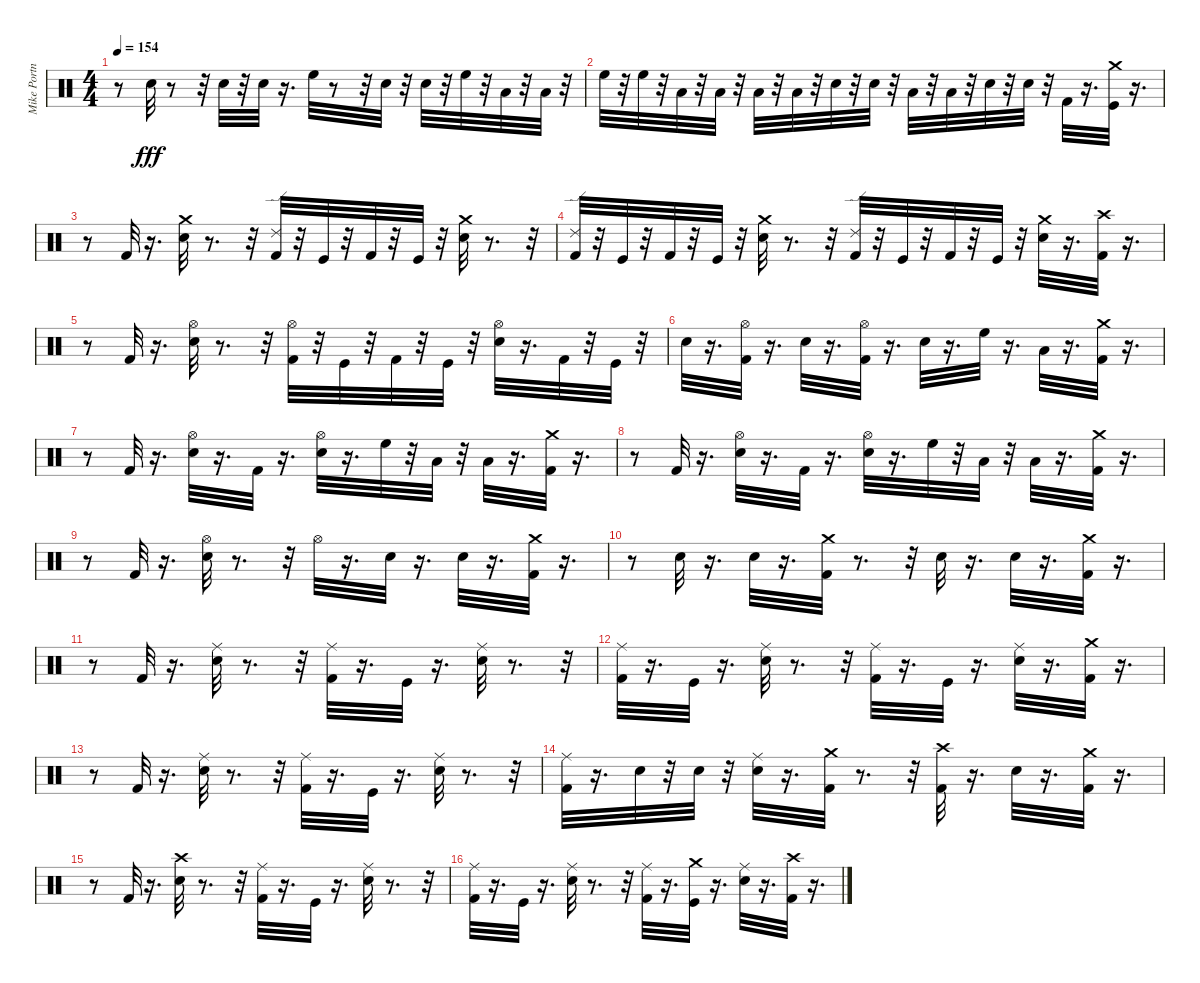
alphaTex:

\track ("Mike Portnoy" "Mike Portn") {instrument percussion}
\staff {score}
\articulation defaults
\ts (4 4)
\tempo 154
\clef neutral
\ks c
r.8{dy fff} "Snare (hit) 2".32 r.8 r.32 "Snare (hit) 2".32 r.32 "Snare (hit) 2".32 r.16{d} "High Floor Tom (hit)".32 r.8 r.32 "Snare (hit) 2".32 r.32 "Snare (hit) 2".32 r.32 "High Floor Tom (hit)".32 r.32 "Low Tom (hit)".32 r.32 "Low Tom (hit)".32 r.32 |
"High Floor Tom (hit)".32 r.32 "High Floor Tom (hit)".32 r.32 "Low Tom (hit)".32 r.32 "Low Tom (hit)".32 r.32 "Low Floor Tom (hit)".32 r.32 "Low Floor Tom (hit)".32 r.32 "Snare (hit) 2".32 r.32 "Snare (hit) 2".32 r.32 "Low Floor Tom (hit)".32 r.32 "Low Floor Tom (hit)".32 r.32 "Snare (hit) 2".32 r.32 "Snare (hit) 2".32 r.32 "Kick (hit) 2".32 r.16{d} ("Crash medium (hit)" "Kick (hit)").32 r.16{d} |
r.8 "Kick (hit) 2".32 r.16{d} ("Crash medium (hit)" "Snare (hit) 2").32 r.8{d} r.32 ("Ride (edge) 2" "Kick (hit) 2").32 r.32 "Kick (hit)".32 r.32 "Kick (hit) 2".32 r.32 "Kick (hit)".32 r.32 ("Crash medium (hit)" "Snare (hit) 2").32 r.8{d} r.32 |
("Kick (hit) 2" "Ride (edge) 2").32 r.32 "Kick (hit)".32 r.32 "Kick (hit) 2".32 r.32 "Kick (hit)".32 r.32 ("Snare (hit) 2" "Crash medium (hit)").32 r.8{d} r.32 ("Kick (hit) 2" "Ride (edge) 2").32 r.32 "Kick (hit)".32 r.32 "Kick (hit) 2".32 r.32 "Kick (hit)".32 r.32 ("Snare (hit) 2" "Crash medium (hit)").32 r.16{d} ("Kick (hit) 2" "Crash high (hit)").32 r.16{d} |
r.8 "Kick (hit) 2".32 r.16{d} ("Snare (hit) 2" "Hi-Hat (open)").32 r.8{d} r.32 ("Kick (hit) 2" "Hi-Hat (open)").32 r.32 "Kick (hit)".32 r.32 "Kick (hit) 2".32 r.32 "Kick (hit)".32 r.32 ("Snare (hit) 2" "Hi-Hat (open)").32 r.16{d} "Kick (hit) 2".32 r.32 "Kick (hit)".32 r.32 |
"Snare (hit) 2".32 r.16{d} ("Kick (hit) 2" "Hi-Hat (open)").32 r.16{d} "Snare (hit) 2".32 r.16{d} ("Kick (hit) 2" "Hi-Hat (open)").32 r.16{d} "Snare (hit) 2".32 r.16{d} "High Floor Tom (hit)".32 r.16{d} "Low Tom (hit)".32 r.16{d} ("Kick (hit) 2" "Crash medium (hit)").32 r.16{d} |
r.8 "Kick (hit) 2".32 r.16{d} ("Snare (hit) 2" "Hi-Hat (open)").32 r.16{d} "Kick (hit) 2".32 r.16{d} ("Snare (hit) 2" "Hi-Hat (open)").32 r.16{d} "High Floor Tom (hit)".32 r.32 "Low Tom (hit)".32 r.32 "Low Floor Tom (hit)".32 r.16{d} ("Crash medium (hit)" "Kick (hit) 2").32 r.16{d} |
r.8 "Kick (hit) 2".32 r.16{d} ("Hi-Hat (open)" "Snare (hit) 2").32 r.16{d} "Kick (hit) 2".32 r.16{d} ("Snare (hit) 2" "Hi-Hat (open)").32 r.16{d} "High Floor Tom (hit)".32 r.32 "Low Tom (hit)".32 r.32 "Low Floor Tom (hit)".32 r.16{d} ("Crash medium (hit)" "Kick (hit) 2").32 r.16{d} |
r.8 "Kick (hit) 2".32 r.16{d} ("Snare (hit) 2" "Hi-Hat (open)").32 r.8{d} r.32 "Hi-Hat (open)".32 r.16{d} "Snare (hit) 2".32 r.16{d} "Snare (hit) 2".32 r.16{d} ("Crash medium (hit)" "Kick (hit) 2").32 r.16{d} |
r.8 "Snare (hit) 2".32 r.16{d} "Snare (hit) 2".32 r.16{d} ("Kick (hit) 2" "Crash medium (hit)").32 r.8{d} r.32 "Snare (hit) 2".32 r.16{d} "Snare (hit) 2".32 r.16{d} ("Crash medium (hit)" "Kick (hit) 2").32 r.16{d} |
r.8 "Kick (hit) 2".32 r.16{d} ("Snare (hit) 2" "Ride (middle)").32 r.8{d} r.32 ("Kick (hit) 2" "Ride (middle)").32 r.16{d} "Kick (hit)".32 r.16{d} ("Snare (hit) 2" "Ride (middle)").32 r.8{d} r.32 |
("Kick (hit) 2" "Ride (middle)").32 r.16{d} "Kick (hit)".32 r.16{d} ("Snare (hit) 2" "Ride (middle)").32 r.8{d} r.32 ("Ride (middle)" "Kick (hit) 2").32 r.16{d} "Kick (hit)".32 r.16{d} ("Snare (hit) 2" "Ride (middle)").32 r.16{d} ("Kick (hit) 2" "Crash medium (hit)").32 r.16{d} |
r.8 "Kick (hit) 2".32 r.16{d} ("Snare (hit) 2" "Ride (middle)").32 r.8{d} r.32 ("Kick (hit) 2" "Ride (middle)").32 r.16{d} "Kick (hit)".32 r.16{d} ("Snare (hit) 2" "Ride (middle)").32 r.8{d} r.32 |
("Kick (hit) 2" "Ride (middle)").32 r.16{d} "Snare (hit) 2".32 r.32 "Snare (hit) 2".32 r.32 ("Snare (hit) 2" "Ride (middle)").32 r.16{d} ("Kick (hit) 2" "Crash medium (hit)").32 r.8{d} r.32 ("Kick (hit) 2" "Crash high (hit)").32 r.16{d} "Snare (hit) 2".32 r.16{d} ("Kick (hit) 2" "Crash medium (hit)").32 r.16{d} |
r.8 "Kick (hit) 2".32 r.16{d} ("Snare (hit) 2" "Crash high (hit)").32 r.8{d} r.32 ("Kick (hit) 2" "Ride (middle)").32 r.16{d} "Kick (hit)".32 r.16{d} ("Snare (hit) 2" "Ride (middle)").32 r.8{d} r.32 |
("Kick (hit) 2" "Ride (middle)").32 r.16{d} "Kick (hit)".32 r.16{d} ("Snare (hit) 2" "Ride (middle)").32 r.8{d} r.32 ("Kick (hit) 2" "Ride (middle)").32 r.16{d} ("Kick (hit)" "Crash medium (hit)").32 r.16{d} ("Snare (hit) 2" "Ride (middle)").32 r.16{d} ("Kick (hit) 2" "Crash high (hit)").32 r.16{d}
